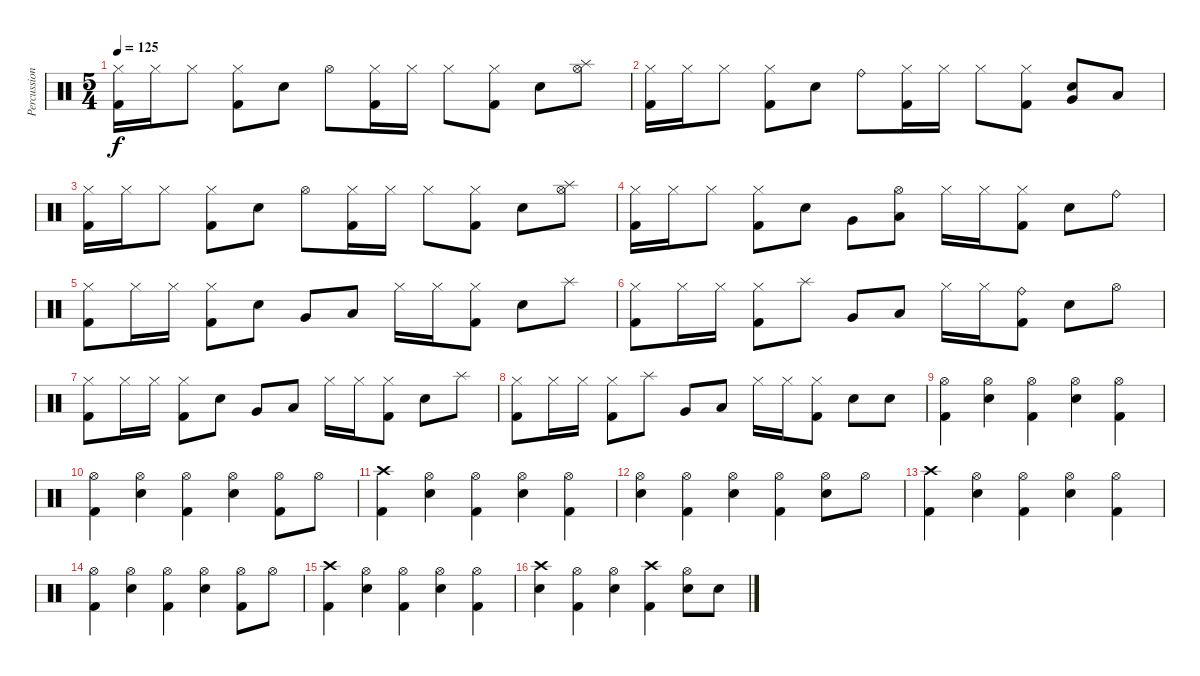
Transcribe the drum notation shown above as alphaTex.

\track ("Percussion" "Percussion") {instrument percussion}
\staff {score}
\articulation defaults
\ts (5 4)
\tempo 125
\clef neutral
\ks c
("Hi-Hat (closed)" "Kick (hit) 2").16{dy f} "Hi-Hat (closed)".16 "Hi-Hat (closed)".8 ("Hi-Hat (closed)" "Kick (hit) 2").8 "Electric Snare (hit)".8 "Hi-Hat (open)".8 ("Hi-Hat (closed)" "Kick (hit) 2").16 "Hi-Hat (closed)".16 "Hi-Hat (closed)".8 ("Hi-Hat (closed)" "Kick (hit) 2").8 "Electric Snare (hit)".8 ("Splash (hit)" "Hi-Hat (open)").8 |
("Hi-Hat (closed)" "Kick (hit) 2").16 "Hi-Hat (closed)".16 "Hi-Hat (closed)".8 ("Hi-Hat (closed)" "Kick (hit) 2").8 "Electric Snare (hit)".8 "Ride (bell)".8 ("Hi-Hat (closed)" "Kick (hit) 2").16 "Hi-Hat (closed)".16 "Hi-Hat (closed)".8 ("Hi-Hat (closed)" "Kick (hit) 2").8 ("Snare (hit) 2" "Very Low Tom (hit)").8 "Low Tom (hit)".8 |
("Hi-Hat (closed)" "Kick (hit) 2").16 "Hi-Hat (closed)".16 "Hi-Hat (closed)".8 ("Hi-Hat (closed)" "Kick (hit) 2").8 "Electric Snare (hit)".8 "Hi-Hat (open)".8 ("Hi-Hat (closed)" "Kick (hit) 2").16 "Hi-Hat (closed)".16 "Hi-Hat (closed)".8 ("Hi-Hat (closed)" "Kick (hit) 2").8 "Electric Snare (hit)".8 ("Splash (hit)" "Hi-Hat (open)").8 |
("Hi-Hat (closed)" "Kick (hit) 2").16 "Hi-Hat (closed)".16 "Hi-Hat (closed)".8 ("Hi-Hat (closed)" "Kick (hit) 2").8 "Electric Snare (hit)".8 "Very Low Tom (hit)".8 ("Hi-Hat (open)" "Low Tom (hit)").8 "Hi-Hat (closed)".16 "Hi-Hat (closed)".16 ("Hi-Hat (closed)" "Kick (hit) 2").8 "Electric Snare (hit)".8 "Ride (bell)".8 |
("Hi-Hat (closed)" "Kick (hit) 2").8 "Hi-Hat (closed)".16 "Hi-Hat (closed)".16 ("Hi-Hat (closed)" "Kick (hit) 2").8 "Electric Snare (hit)".8 "Very Low Tom (hit)".8 "Low Tom (hit)".8 "Hi-Hat (closed)".16 "Hi-Hat (closed)".16 ("Hi-Hat (closed)" "Kick (hit) 2").8 "Electric Snare (hit)".8 "Splash (hit)".8 |
("Hi-Hat (closed)" "Kick (hit) 2").8 "Hi-Hat (closed)".16 "Hi-Hat (closed)".16 ("Hi-Hat (closed)" "Kick (hit) 2").8 "Splash (hit)".8 "Very Low Tom (hit)".8 "Low Tom (hit)".8 "Hi-Hat (closed)".16 "Hi-Hat (closed)".16 ("Ride (bell)" "Kick (hit) 2").8 "Electric Snare (hit)".8 "Hi-Hat (open)".8 |
("Hi-Hat (closed)" "Kick (hit) 2").8 "Hi-Hat (closed)".16 "Hi-Hat (closed)".16 ("Hi-Hat (closed)" "Kick (hit) 2").8 "Electric Snare (hit)".8 "Very Low Tom (hit)".8 "Low Tom (hit)".8 "Hi-Hat (closed)".16 "Hi-Hat (closed)".16 ("Hi-Hat (closed)" "Kick (hit) 2").8 "Electric Snare (hit)".8 "Splash (hit)".8 |
("Hi-Hat (closed)" "Kick (hit) 2").8 "Hi-Hat (closed)".16 "Hi-Hat (closed)".16 ("Hi-Hat (closed)" "Kick (hit) 2").8 "Splash (hit)".8 "Very Low Tom (hit)".8 "Low Tom (hit)".8 "Hi-Hat (closed)".16 "Hi-Hat (closed)".16 ("Hi-Hat (closed)" "Kick (hit) 2").8 "Electric Snare (hit)".8 "Electric Snare (hit)".8 |
("Hi-Hat (open)" "Kick (hit) 2").4 ("Hi-Hat (open)" "Electric Snare (hit)").4 ("Hi-Hat (open)" "Kick (hit) 2").4 ("Hi-Hat (open)" "Electric Snare (hit)").4 ("Hi-Hat (open)" "Kick (hit) 2").4 |
("Hi-Hat (open)" "Kick (hit) 2").4 ("Hi-Hat (open)" "Electric Snare (hit)").4 ("Hi-Hat (open)" "Kick (hit) 2").4 ("Hi-Hat (open)" "Electric Snare (hit)").4 ("Hi-Hat (open)" "Kick (hit) 2").8 "Hi-Hat (open)".8 |
("Crash high (hit)" "Kick (hit) 2").4 ("Hi-Hat (open)" "Electric Snare (hit)").4 ("Hi-Hat (open)" "Kick (hit) 2").4 ("Hi-Hat (open)" "Electric Snare (hit)").4 ("Hi-Hat (open)" "Kick (hit) 2").4 |
("Hi-Hat (open)" "Electric Snare (hit)").4 ("Hi-Hat (open)" "Kick (hit) 2").4 ("Hi-Hat (open)" "Electric Snare (hit)").4 ("Hi-Hat (open)" "Kick (hit) 2").4 ("Hi-Hat (open)" "Electric Snare (hit)").8 "Hi-Hat (open)".8 |
("Crash high (hit)" "Kick (hit) 2").4 ("Hi-Hat (open)" "Electric Snare (hit)").4 ("Hi-Hat (open)" "Kick (hit) 2").4 ("Hi-Hat (open)" "Electric Snare (hit)").4 ("Hi-Hat (open)" "Kick (hit) 2").4 |
("Hi-Hat (open)" "Kick (hit) 2").4 ("Hi-Hat (open)" "Electric Snare (hit)").4 ("Hi-Hat (open)" "Kick (hit) 2").4 ("Hi-Hat (open)" "Electric Snare (hit)").4 ("Hi-Hat (open)" "Kick (hit) 2").8 "Hi-Hat (open)".8 |
("Crash high (hit)" "Kick (hit) 2").4 ("Hi-Hat (open)" "Electric Snare (hit)").4 ("Hi-Hat (open)" "Kick (hit) 2").4 ("Hi-Hat (open)" "Electric Snare (hit)").4 ("Hi-Hat (open)" "Kick (hit) 2").4 |
("Crash high (hit)" "Electric Snare (hit)").4 ("Hi-Hat (open)" "Kick (hit) 2").4 ("Hi-Hat (open)" "Electric Snare (hit)").4 ("Crash high (hit)" "Kick (hit) 2").4 ("Hi-Hat (open)" "Electric Snare (hit)").8 "Electric Snare (hit)".8
